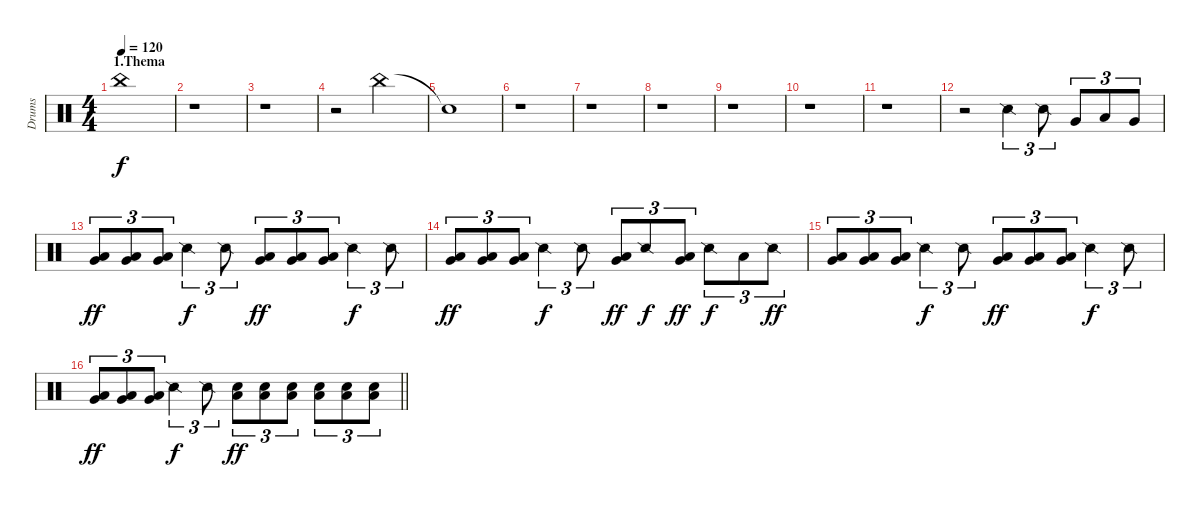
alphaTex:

\track ("Drums" "Drums") {instrument percussion}
\staff {score}
\articulation defaults
\ts (4 4)
\section ("" "1.Thema")
\tempo 120
\clef neutral
\ks c "China (hit)".1{dy f volume 16}
|
r.1 |
r.1 |
r.2{volume 0} "China (hit)".2{volume 16} |
"Snare (hit)"{t}.1 |
r.1 |
r.1 |
r.1 |
r.1 |
r.1 |
r.1 |
r.2 "Snare (side stick) 2".4{tu (3 2)} "Snare (side stick) 2".8{tu (3 2)} "Very Low Tom (hit)".8{tu (3 2)} "Low Floor Tom (hit)".8{tu (3 2)} "Very Low Tom (hit)".8{tu (3 2)} |
("Very Low Tom (hit)" "Low Floor Tom (hit)").8{tu (3 2) dy ff} ("Very Low Tom (hit)" "Low Floor Tom (hit)").8{tu (3 2)} ("Very Low Tom (hit)" "Low Floor Tom (hit)").8{tu (3 2)} "Snare (side stick) 2".4{tu (3 2) dy f} "Snare (side stick) 2".8{tu (3 2)} ("Very Low Tom (hit)" "Low Floor Tom (hit)").8{tu (3 2) dy ff} ("Very Low Tom (hit)" "Low Floor Tom (hit)").8{tu (3 2)} ("Very Low Tom (hit)" "Low Floor Tom (hit)").8{tu (3 2)} "Snare (side stick) 2".4{tu (3 2) dy f} "Snare (side stick) 2".8{tu (3 2)} |
("Very Low Tom (hit)" "Low Floor Tom (hit)").8{tu (3 2) dy ff} ("Very Low Tom (hit)" "Low Floor Tom (hit)").8{tu (3 2)} ("Very Low Tom (hit)" "Low Floor Tom (hit)").8{tu (3 2)} "Snare (side stick) 2".4{tu (3 2) dy f} "Snare (side stick) 2".8{tu (3 2)} ("Very Low Tom (hit)" "Low Floor Tom (hit)").8{tu (3 2) dy ff} "Snare (side stick) 2".8{tu (3 2) dy f} ("Very Low Tom (hit)" "Low Floor Tom (hit)").8{tu (3 2) dy ff} "Snare (side stick) 2".8{tu (3 2) dy f} "Low Floor Tom (hit)".8{tu (3 2)} "Snare (side stick) 2".8{tu (3 2) dy ff} |
("Very Low Tom (hit)" "Low Floor Tom (hit)").8{tu (3 2)} ("Very Low Tom (hit)" "Low Floor Tom (hit)").8{tu (3 2)} ("Very Low Tom (hit)" "Low Floor Tom (hit)").8{tu (3 2)} "Snare (side stick) 2".4{tu (3 2) dy f} "Snare (side stick) 2".8{tu (3 2)} ("Very Low Tom (hit)" "Low Floor Tom (hit)").8{tu (3 2) dy ff} ("Very Low Tom (hit)" "Low Floor Tom (hit)").8{tu (3 2)} ("Very Low Tom (hit)" "Low Floor Tom (hit)").8{tu (3 2)} "Snare (side stick) 2".4{tu (3 2) dy f} "Snare (side stick) 2".8{tu (3 2)} |
\barLineRight lightlight
("Very Low Tom (hit)" "Low Floor Tom (hit)").8{tu (3 2) dy ff} ("Very Low Tom (hit)" "Low Floor Tom (hit)").8{tu (3 2)} ("Very Low Tom (hit)" "Low Floor Tom (hit)").8{tu (3 2)} "Snare (side stick) 2".4{tu (3 2) dy f} "Snare (side stick) 2".8{tu (3 2)} ("Electric Snare (hit)" "Low Floor Tom (hit)").8{tu (3 2) dy ff} ("Electric Snare (hit)" "Low Floor Tom (hit)").8{tu (3 2)} ("Electric Snare (hit)" "Low Floor Tom (hit)").8{tu (3 2)} ("Electric Snare (hit)" "Low Floor Tom (hit)").8{tu (3 2)} ("Electric Snare (hit)" "Low Floor Tom (hit)").8{tu (3 2)} ("Electric Snare (hit)" "Low Floor Tom (hit)").8{tu (3 2)}
